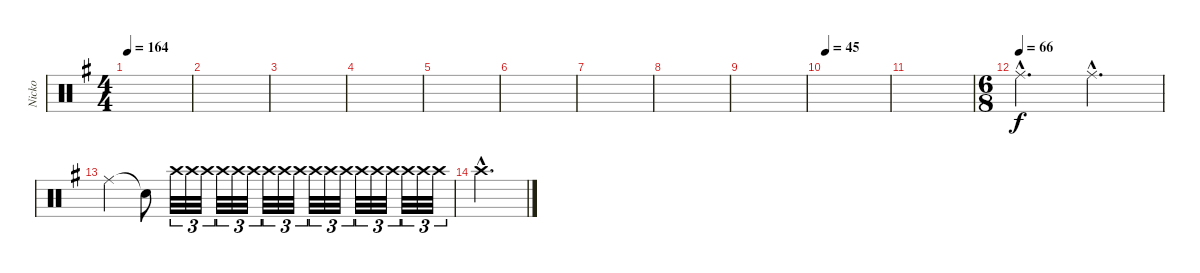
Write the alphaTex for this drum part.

\track ("Nicko" "Nicko") {instrument percussion}
\staff {score}
\articulation defaults
\ts (4 4)
\tempo 164
\clef neutral
\ks eminor
|
|
|
|
|
|
|
|
|
\tempo 45
|
|
\ts (6 8)
\tempo (66)
"Ride (middle)"{hac}.4{d} "Ride (middle)"{hac}.4{d} |
"Ride (middle)".4 "Snare (hit)"{t}.8{volume 0} "Crash high (hit)".32{tu (3 2) volume 6} "Crash high (hit)".32{tu (3 2)} "Crash high (hit)".32{tu (3 2)} "Crash high (hit)".32{tu (3 2)} "Crash high (hit)".32{tu (3 2)} "Crash high (hit)".32{tu (3 2)} "Crash high (hit)".32{tu (3 2)} "Crash high (hit)".32{tu (3 2)} "Crash high (hit)".32{tu (3 2)} "Crash high (hit)".32{tu (3 2)} "Crash high (hit)".32{tu (3 2)} "Crash high (hit)".32{tu (3 2)} "Crash high (hit)".32{tu (3 2)} "Crash high (hit)".32{tu (3 2)} "Crash high (hit)".32{tu (3 2)} "Crash high (hit)".32{tu (3 2)} "Crash high (hit)".32{tu (3 2)} "Crash high (hit)".32{tu (3 2)} |
"Crash high (hit)"{hac}.2{d}
